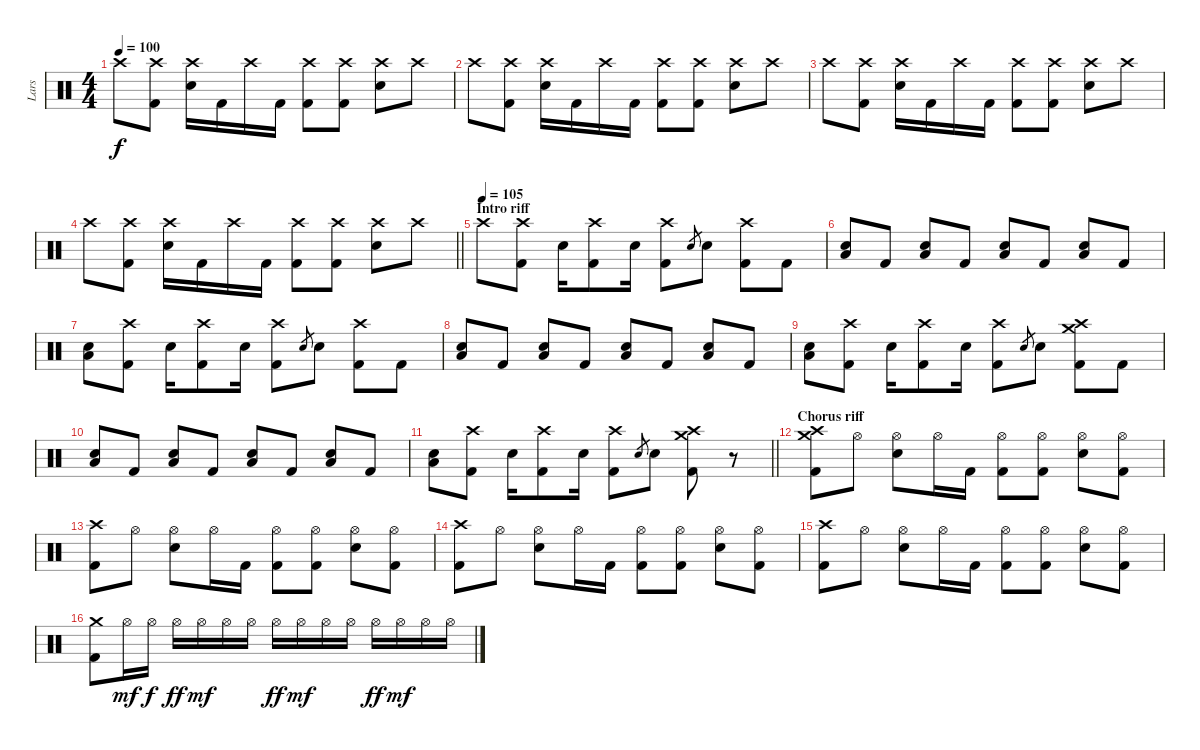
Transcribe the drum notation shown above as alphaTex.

\track ("Lars" "Lars") {instrument percussion}
\staff {score}
\articulation defaults
\ts (4 4)
\tempo 100
\clef neutral
\ks c "Crash high (hit)".8{dy f}
("Crash high (hit)" "Kick (hit) 2").8 ("Crash high (hit)" "Electric Snare (hit)").16 "Kick (hit) 2".16 "Crash high (hit)".16 "Kick (hit) 2".16 ("Crash high (hit)" "Kick (hit) 2").8 ("Crash high (hit)" "Kick (hit) 2").8 ("Crash high (hit)" "Electric Snare (hit)").8 "Crash high (hit)".8 |
"Crash high (hit)".8 ("Crash high (hit)" "Kick (hit) 2").8 ("Crash high (hit)" "Electric Snare (hit)").16 "Kick (hit) 2".16 "Crash high (hit)".16 "Kick (hit) 2".16 ("Crash high (hit)" "Kick (hit) 2").8 ("Crash high (hit)" "Kick (hit) 2").8 ("Crash high (hit)" "Electric Snare (hit)").8 "Crash high (hit)".8 |
"Crash high (hit)".8 ("Crash high (hit)" "Kick (hit) 2").8 ("Crash high (hit)" "Electric Snare (hit)").16 "Kick (hit) 2".16 "Crash high (hit)".16 "Kick (hit) 2".16 ("Crash high (hit)" "Kick (hit) 2").8 ("Crash high (hit)" "Kick (hit) 2").8 ("Crash high (hit)" "Electric Snare (hit)").8 "Crash high (hit)".8 |
\barLineRight lightlight "Crash high (hit)".8
("Crash high (hit)" "Kick (hit) 2").8 ("Crash high (hit)" "Electric Snare (hit)").16 "Kick (hit) 2".16 "Crash high (hit)".16 "Kick (hit) 2".16 ("Crash high (hit)" "Kick (hit) 2").8 ("Crash high (hit)" "Kick (hit) 2").8 ("Crash high (hit)" "Electric Snare (hit)").8 "Crash high (hit)".8 |
\section ("" "Intro riff")
\tempo (105)
"Crash high (hit)".8 ("Crash high (hit)" "Kick (hit) 2").8 "Electric Snare (hit)".16 ("Crash high (hit)" "Kick (hit) 2").8 "Electric Snare (hit)".16 ("Crash high (hit)" "Kick (hit) 2").8 "Electric Snare (hit)".8{gr} "Electric Snare (hit)".8 ("Crash high (hit)" "Kick (hit) 2").8 "Kick (hit) 2".8 |
("Low Floor Tom (hit)" "Electric Snare (hit)").8 "Kick (hit) 2".8 ("Low Floor Tom (hit)" "Electric Snare (hit)").8 "Kick (hit) 2".8 ("Low Floor Tom (hit)" "Electric Snare (hit)").8 "Kick (hit) 2".8 ("Low Floor Tom (hit)" "Electric Snare (hit)").8 "Kick (hit) 2".8 |
("Low Floor Tom (hit)" "Electric Snare (hit)").8 ("Crash high (hit)" "Kick (hit) 2").8 "Electric Snare (hit)".16 ("Crash high (hit)" "Kick (hit) 2").8 "Electric Snare (hit)".16 ("Crash high (hit)" "Kick (hit) 2").8 "Electric Snare (hit)".8{gr} "Electric Snare (hit)".8 ("Crash high (hit)" "Kick (hit) 2").8 "Kick (hit) 2".8 |
("Low Floor Tom (hit)" "Electric Snare (hit)").8 "Kick (hit) 2".8 ("Low Floor Tom (hit)" "Electric Snare (hit)").8 "Kick (hit) 2".8 ("Low Floor Tom (hit)" "Electric Snare (hit)").8 "Kick (hit) 2".8 ("Low Floor Tom (hit)" "Electric Snare (hit)").8 "Kick (hit) 2".8 |
("Low Floor Tom (hit)" "Electric Snare (hit)").8 ("Crash high (hit)" "Kick (hit) 2").8 "Electric Snare (hit)".16 ("Crash high (hit)" "Kick (hit) 2").8 "Electric Snare (hit)".16 ("Crash high (hit)" "Kick (hit) 2").8 "Electric Snare (hit)".8{gr} "Electric Snare (hit)".8 ("Crash high (hit)" "Crash medium (hit)" "Kick (hit) 2").8 "Kick (hit) 2".8 |
("Low Floor Tom (hit)" "Electric Snare (hit)").8 "Kick (hit) 2".8 ("Low Floor Tom (hit)" "Electric Snare (hit)").8 "Kick (hit) 2".8 ("Low Floor Tom (hit)" "Electric Snare (hit)").8 "Kick (hit) 2".8 ("Low Floor Tom (hit)" "Electric Snare (hit)").8 "Kick (hit) 2".8 |
\barLineRight lightlight
("Low Floor Tom (hit)" "Electric Snare (hit)").8 ("Crash high (hit)" "Kick (hit) 2").8 "Electric Snare (hit)".16 ("Crash high (hit)" "Kick (hit) 2").8 "Electric Snare (hit)".16 ("Crash high (hit)" "Kick (hit) 2").8 "Electric Snare (hit)".8{gr} "Electric Snare (hit)".8 ("Crash high (hit)" "Crash medium (hit)" "Kick (hit) 2").8 r.8 |
\section ("" "Chorus riff")
("Crash high (hit)" "Crash medium (hit)" "Kick (hit) 2").8 "Hi-Hat (open)".8 ("Hi-Hat (open)" "Electric Snare (hit)").8 "Hi-Hat (open)".16 "Kick (hit) 2".16 ("Hi-Hat (open)" "Kick (hit) 2").8 ("Hi-Hat (open)" "Kick (hit) 2").8 ("Hi-Hat (open)" "Electric Snare (hit)").8 ("Hi-Hat (open)" "Kick (hit) 2").8 |
("Crash high (hit)" "Kick (hit) 2").8 "Hi-Hat (open)".8 ("Hi-Hat (open)" "Electric Snare (hit)").8 "Hi-Hat (open)".16 "Kick (hit) 2".16 ("Hi-Hat (open)" "Kick (hit) 2").8 ("Hi-Hat (open)" "Kick (hit) 2").8 ("Hi-Hat (open)" "Electric Snare (hit)").8 ("Hi-Hat (open)" "Kick (hit) 2").8 |
("Crash high (hit)" "Kick (hit) 2").8 "Hi-Hat (open)".8 ("Hi-Hat (open)" "Electric Snare (hit)").8 "Hi-Hat (open)".16 "Kick (hit) 2".16 ("Hi-Hat (open)" "Kick (hit) 2").8 ("Hi-Hat (open)" "Kick (hit) 2").8 ("Hi-Hat (open)" "Electric Snare (hit)").8 ("Hi-Hat (open)" "Kick (hit) 2").8 |
("Crash high (hit)" "Kick (hit) 2").8 "Hi-Hat (open)".8 ("Hi-Hat (open)" "Electric Snare (hit)").8 "Hi-Hat (open)".16 "Kick (hit) 2".16 ("Hi-Hat (open)" "Kick (hit) 2").8 ("Hi-Hat (open)" "Kick (hit) 2").8 ("Hi-Hat (open)" "Electric Snare (hit)").8 ("Hi-Hat (open)" "Kick (hit) 2").8 |
("Crash medium (hit)" "Kick (hit) 2").8 "Hi-Hat (open)".16{dy mf} "Hi-Hat (open)".16{dy f} "Hi-Hat (open)".16{dy ff} "Hi-Hat (open)".16{dy mf} "Hi-Hat (open)".16 "Hi-Hat (open)".16 "Hi-Hat (open)".16{dy ff} "Hi-Hat (open)".16{dy mf} "Hi-Hat (open)".16 "Hi-Hat (open)".16 "Hi-Hat (open)".16{dy ff} "Hi-Hat (open)".16{dy mf} "Hi-Hat (open)".16 "Hi-Hat (open)".16
